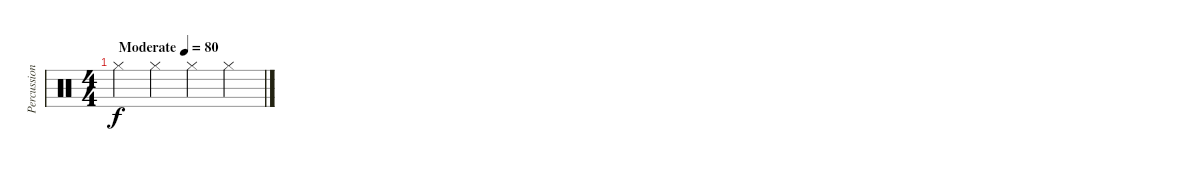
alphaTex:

\track ("Percussion" "Percussion") {instrument percussion}
\staff {score}
\articulation defaults
\ts (4 4)
\tempo (80 "Moderate")
\clef neutral
\ks c "Hi-Hat (closed)".4{dy f} "Hi-Hat (closed)".4 "Hi-Hat (closed)".4 "Hi-Hat (closed)".4
